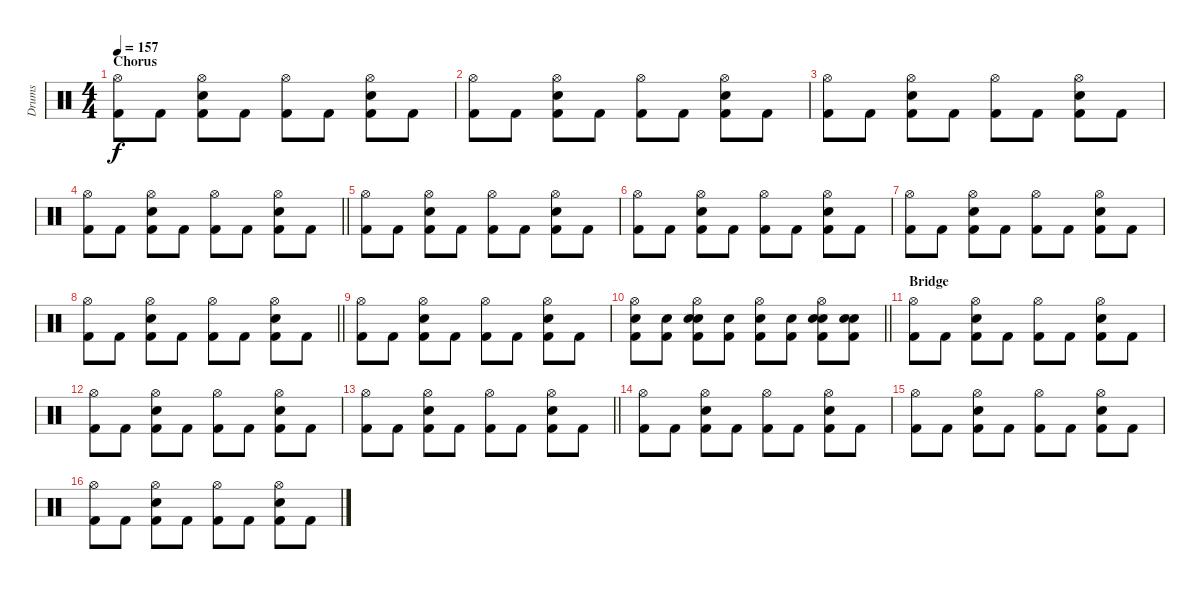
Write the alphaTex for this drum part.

\track ("Drums" "Drums") {instrument percussion}
\staff {score}
\articulation defaults
\ts (4 4)
\section ("" "Chorus")
\tempo 157
\clef neutral
\ks c
("Hi-Hat (open)" "Kick (hit) 2").8{dy f} "Kick (hit) 2".8 ("Hi-Hat (open)" "Electric Snare (hit)" "Kick (hit) 2").8 "Kick (hit) 2".8 ("Hi-Hat (open)" "Kick (hit) 2").8 "Kick (hit) 2".8 ("Hi-Hat (open)" "Kick (hit) 2" "Electric Snare (hit)").8 "Kick (hit) 2".8 |
("Hi-Hat (open)" "Kick (hit) 2").8 "Kick (hit) 2".8 ("Hi-Hat (open)" "Electric Snare (hit)" "Kick (hit) 2").8 "Kick (hit) 2".8 ("Hi-Hat (open)" "Kick (hit) 2").8 "Kick (hit) 2".8 ("Hi-Hat (open)" "Kick (hit) 2" "Electric Snare (hit)").8 "Kick (hit) 2".8 |
("Hi-Hat (open)" "Kick (hit) 2").8 "Kick (hit) 2".8 ("Hi-Hat (open)" "Electric Snare (hit)" "Kick (hit) 2").8 "Kick (hit) 2".8 ("Hi-Hat (open)" "Kick (hit) 2").8 "Kick (hit) 2".8 ("Hi-Hat (open)" "Kick (hit) 2" "Electric Snare (hit)").8 "Kick (hit) 2".8 |
\barLineRight lightlight
("Hi-Hat (open)" "Kick (hit) 2").8 "Kick (hit) 2".8 ("Hi-Hat (open)" "Electric Snare (hit)" "Kick (hit) 2").8 "Kick (hit) 2".8 ("Hi-Hat (open)" "Kick (hit) 2").8 "Kick (hit) 2".8 ("Hi-Hat (open)" "Kick (hit) 2" "Electric Snare (hit)").8 "Kick (hit) 2".8 |
("Hi-Hat (open)" "Kick (hit) 2").8 "Kick (hit) 2".8 ("Hi-Hat (open)" "Electric Snare (hit)" "Kick (hit) 2").8 "Kick (hit) 2".8 ("Hi-Hat (open)" "Kick (hit) 2").8 "Kick (hit) 2".8 ("Hi-Hat (open)" "Kick (hit) 2" "Electric Snare (hit)").8 "Kick (hit) 2".8 |
("Hi-Hat (open)" "Kick (hit) 2").8 "Kick (hit) 2".8 ("Hi-Hat (open)" "Electric Snare (hit)" "Kick (hit) 2").8 "Kick (hit) 2".8 ("Hi-Hat (open)" "Kick (hit) 2").8 "Kick (hit) 2".8 ("Hi-Hat (open)" "Kick (hit) 2" "Electric Snare (hit)").8 "Kick (hit) 2".8 |
("Hi-Hat (open)" "Kick (hit) 2").8 "Kick (hit) 2".8 ("Hi-Hat (open)" "Electric Snare (hit)" "Kick (hit) 2").8 "Kick (hit) 2".8 ("Hi-Hat (open)" "Kick (hit) 2").8 "Kick (hit) 2".8 ("Hi-Hat (open)" "Kick (hit) 2" "Electric Snare (hit)").8 "Kick (hit) 2".8 |
\barLineRight lightlight
("Hi-Hat (open)" "Kick (hit) 2").8 "Kick (hit) 2".8 ("Hi-Hat (open)" "Electric Snare (hit)" "Kick (hit) 2").8 "Kick (hit) 2".8 ("Hi-Hat (open)" "Kick (hit) 2").8 "Kick (hit) 2".8 ("Hi-Hat (open)" "Kick (hit) 2" "Electric Snare (hit)").8 "Kick (hit) 2".8 |
("Hi-Hat (open)" "Kick (hit) 2").8 "Kick (hit) 2".8 ("Hi-Hat (open)" "Electric Snare (hit)" "Kick (hit) 2").8 "Kick (hit) 2".8 ("Hi-Hat (open)" "Kick (hit) 2").8 "Kick (hit) 2".8 ("Hi-Hat (open)" "Kick (hit) 2" "Electric Snare (hit)").8 "Kick (hit) 2".8 |
\barLineRight lightlight
("Hi-Hat (open)" "Electric Snare (hit)" "Kick (hit) 2").8 ("Electric Snare (hit)" "Kick (hit) 2").8 ("Hi-Hat (open)" "Electric Snare (hit)" "Electric Snare (hit)" "Kick (hit) 2").8 ("Electric Snare (hit)" "Kick (hit) 2").8 ("Hi-Hat (open)" "Electric Snare (hit)" "Kick (hit) 2").8 ("Electric Snare (hit)" "Kick (hit) 2").8 ("Hi-Hat (open)" "Electric Snare (hit)" "Kick (hit) 2" "Electric Snare (hit)").8 ("Electric Snare (hit)" "Electric Snare (hit)" "Kick (hit) 2").8 |
\section ("" "Bridge")
("Hi-Hat (open)" "Kick (hit) 2").8 "Kick (hit) 2".8 ("Hi-Hat (open)" "Electric Snare (hit)" "Kick (hit) 2").8 "Kick (hit) 2".8 ("Hi-Hat (open)" "Kick (hit) 2").8 "Kick (hit) 2".8 ("Hi-Hat (open)" "Kick (hit) 2" "Electric Snare (hit)").8 "Kick (hit) 2".8 |
("Hi-Hat (open)" "Kick (hit) 2").8 "Kick (hit) 2".8 ("Hi-Hat (open)" "Electric Snare (hit)" "Kick (hit) 2").8 "Kick (hit) 2".8 ("Hi-Hat (open)" "Kick (hit) 2").8 "Kick (hit) 2".8 ("Hi-Hat (open)" "Kick (hit) 2" "Electric Snare (hit)").8 "Kick (hit) 2".8 |
\barLineRight lightlight
("Hi-Hat (open)" "Kick (hit) 2").8 "Kick (hit) 2".8 ("Hi-Hat (open)" "Electric Snare (hit)" "Kick (hit) 2").8 "Kick (hit) 2".8 ("Hi-Hat (open)" "Kick (hit) 2").8 "Kick (hit) 2".8 ("Hi-Hat (open)" "Kick (hit) 2" "Electric Snare (hit)").8 "Kick (hit) 2".8 |
("Hi-Hat (open)" "Kick (hit) 2").8 "Kick (hit) 2".8 ("Hi-Hat (open)" "Electric Snare (hit)" "Kick (hit) 2").8 "Kick (hit) 2".8 ("Hi-Hat (open)" "Kick (hit) 2").8 "Kick (hit) 2".8 ("Hi-Hat (open)" "Kick (hit) 2" "Electric Snare (hit)").8 "Kick (hit) 2".8 |
("Hi-Hat (open)" "Kick (hit) 2").8 "Kick (hit) 2".8 ("Hi-Hat (open)" "Electric Snare (hit)" "Kick (hit) 2").8 "Kick (hit) 2".8 ("Hi-Hat (open)" "Kick (hit) 2").8 "Kick (hit) 2".8 ("Hi-Hat (open)" "Kick (hit) 2" "Electric Snare (hit)").8 "Kick (hit) 2".8 |
("Hi-Hat (open)" "Kick (hit) 2").8 "Kick (hit) 2".8 ("Hi-Hat (open)" "Electric Snare (hit)" "Kick (hit) 2").8 "Kick (hit) 2".8 ("Hi-Hat (open)" "Kick (hit) 2").8 "Kick (hit) 2".8 ("Hi-Hat (open)" "Kick (hit) 2" "Electric Snare (hit)").8 "Kick (hit) 2".8
